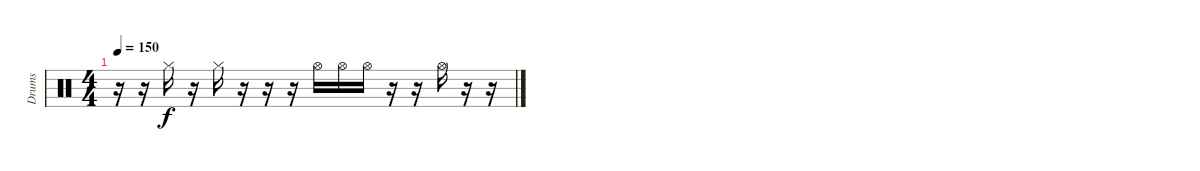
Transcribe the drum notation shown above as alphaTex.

\track ("Drums" "Drums") {instrument percussion}
\staff {score}
\articulation defaults
\ts (4 4)
\tempo 150
\clef neutral
\ks c
r.16{dy f} r.16 "Hi-Hat (closed)".16 r.16 "Hi-Hat (closed)".16 r.16 r.16 r.16 "Hi-Hat (open)".16 "Hi-Hat (open)".16 "Hi-Hat (open)".16 r.16 r.16 "Hi-Hat (open)".16 r.16 r.16
